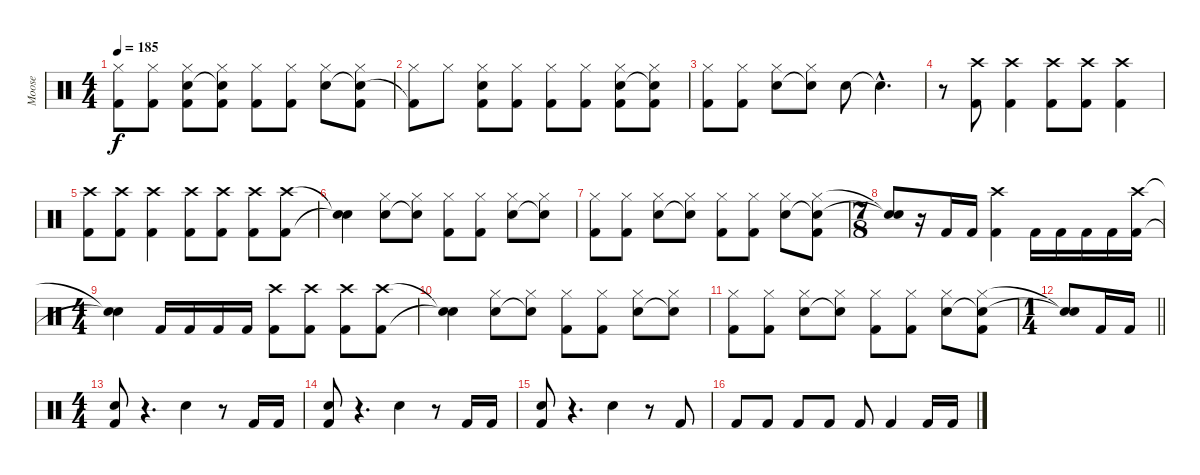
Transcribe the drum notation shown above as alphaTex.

\track ("Moose" "Moose") {instrument percussion}
\staff {score}
\articulation defaults
\ts (4 4)
\tempo 185
\clef neutral
\ks c
("Hi-Hat (closed)" "Kick (hit) 2").8{dy f} ("Hi-Hat (closed)" "Kick (hit) 2").8 ("Hi-Hat (closed)" "Snare (hit) 2" "Kick (hit) 2").8 ("Hi-Hat (closed)" "Snare (hit)"{t} "Kick (hit) 2").8 ("Hi-Hat (closed)" "Kick (hit) 2").8 ("Hi-Hat (closed)" "Kick (hit) 2").8 ("Hi-Hat (closed)" "Snare (hit) 2").8 ("Hi-Hat (closed)" "Snare (hit)"{t} "Kick (hit) 2").8 |
("Hi-Hat (closed)" "Kick (hit) 2"{t}).8 "Hi-Hat (closed)".8 ("Hi-Hat (closed)" "Snare (hit) 2" "Kick (hit) 2").8 ("Hi-Hat (closed)" "Kick (hit) 2").8 ("Hi-Hat (closed)" "Kick (hit) 2").8 ("Hi-Hat (closed)" "Kick (hit) 2").8 ("Hi-Hat (closed)" "Snare (hit) 2" "Kick (hit) 2").8 ("Hi-Hat (closed)" "Snare (hit)"{t} "Kick (hit) 2").8 |
("Hi-Hat (closed)" "Kick (hit) 2").8 ("Hi-Hat (closed)" "Kick (hit) 2").8 ("Hi-Hat (closed)" "Snare (hit) 2").8 ("Hi-Hat (closed)" "Snare (hit)"{t}).8 "Snare (hit) 2".8 "Snare (hit)"{hac t}.4{d} |
r.8 ("Crash high (hit)" "Kick (hit) 2").8 ("Crash high (hit)" "Kick (hit) 2").4 ("Crash high (hit)" "Kick (hit) 2").8 ("Crash high (hit)" "Kick (hit) 2").8 ("Crash high (hit)" "Kick (hit) 2").4 |
("Crash high (hit)" "Kick (hit) 2").8 ("Crash high (hit)" "Kick (hit) 2").8 ("Crash high (hit)" "Kick (hit) 2").4 ("Crash high (hit)" "Kick (hit) 2").8 ("Crash high (hit)" "Kick (hit) 2").8 ("Crash high (hit)" "Kick (hit) 2").8 ("Crash high (hit)" "Kick (hit) 2").8 |
("Snare (hit)"{t} "Snare (hit)"{t}).4 ("Hi-Hat (closed)" "Snare (hit) 2").8 ("Hi-Hat (closed)" "Snare (hit) 2"{t}).8 ("Hi-Hat (closed)" "Kick (hit) 2").8 ("Hi-Hat (closed)" "Kick (hit) 2").8 ("Hi-Hat (closed)" "Snare (hit) 2").8 ("Hi-Hat (closed)" "Snare (hit)"{t}).8 |
("Hi-Hat (closed)" "Kick (hit) 2").8 ("Hi-Hat (closed)" "Kick (hit) 2").8 ("Hi-Hat (closed)" "Snare (hit) 2").8 ("Hi-Hat (closed)" "Snare (hit)"{t}).8 ("Hi-Hat (closed)" "Kick (hit) 2").8 ("Hi-Hat (closed)" "Kick (hit) 2").8 ("Hi-Hat (closed)" "Snare (hit) 2").8 ("Hi-Hat (closed)" "Snare (hit)"{t} "Kick (hit) 2").8 |
\ts (7 8)
("Snare (hit)"{t} "Snare (hit)"{t}).8 r.16 "Kick (hit) 2".16 "Kick (hit) 2".16 ("Crash high (hit)" "Kick (hit) 2").4 "Kick (hit) 2".16 "Kick (hit) 2".16 "Kick (hit) 2".16 "Kick (hit) 2".16 ("Crash high (hit)" "Kick (hit) 2").16 |
\ts (4 4)
("Snare (hit)"{t} "Snare (hit)"{t}).4 "Kick (hit) 2".16 "Kick (hit) 2".16 "Kick (hit) 2".16 "Kick (hit) 2".16 ("Crash high (hit)" "Kick (hit) 2").8 ("Crash high (hit)" "Kick (hit) 2").8 ("Crash high (hit)" "Kick (hit) 2").8 ("Crash high (hit)" "Kick (hit) 2").8 |
("Snare (hit)"{t} "Snare (hit)"{t}).4 ("Hi-Hat (closed)" "Snare (hit) 2").8 ("Hi-Hat (closed)" "Snare (hit) 2"{t}).8 ("Hi-Hat (closed)" "Kick (hit) 2").8 ("Hi-Hat (closed)" "Kick (hit) 2").8 ("Hi-Hat (closed)" "Snare (hit) 2").8 ("Hi-Hat (closed)" "Snare (hit)"{t}).8 |
("Hi-Hat (closed)" "Kick (hit) 2").8 ("Hi-Hat (closed)" "Kick (hit) 2").8 ("Hi-Hat (closed)" "Snare (hit) 2").8 ("Hi-Hat (closed)" "Snare (hit)"{t}).8 ("Hi-Hat (closed)" "Kick (hit) 2").8 ("Hi-Hat (closed)" "Kick (hit) 2").8 ("Hi-Hat (closed)" "Snare (hit) 2").8 ("Hi-Hat (closed)" "Snare (hit)"{t} "Kick (hit) 2").8 |
\ts (1 4)
\barLineRight lightlight
("Snare (hit)"{t} "Snare (hit)"{t}).8 "Kick (hit) 2".16 "Kick (hit) 2".16 |
\ts (4 4)
("Snare (hit) 2" "Kick (hit) 2").8 r.4{d} "Snare (hit) 2".4 r.8 "Kick (hit) 2".16 "Kick (hit) 2".16 |
("Snare (hit) 2" "Kick (hit) 2").8 r.4{d} "Snare (hit) 2".4 r.8 "Kick (hit) 2".16 "Kick (hit) 2".16 |
("Snare (hit) 2" "Kick (hit) 2").8 r.4{d} "Snare (hit) 2".4 r.8 "Kick (hit) 2".8 |
"Kick (hit) 2".8 "Kick (hit) 2".8 "Kick (hit) 2".8 "Kick (hit) 2".8 "Kick (hit) 2".8 "Kick (hit) 2".4 "Kick (hit) 2".16 "Kick (hit) 2".16
